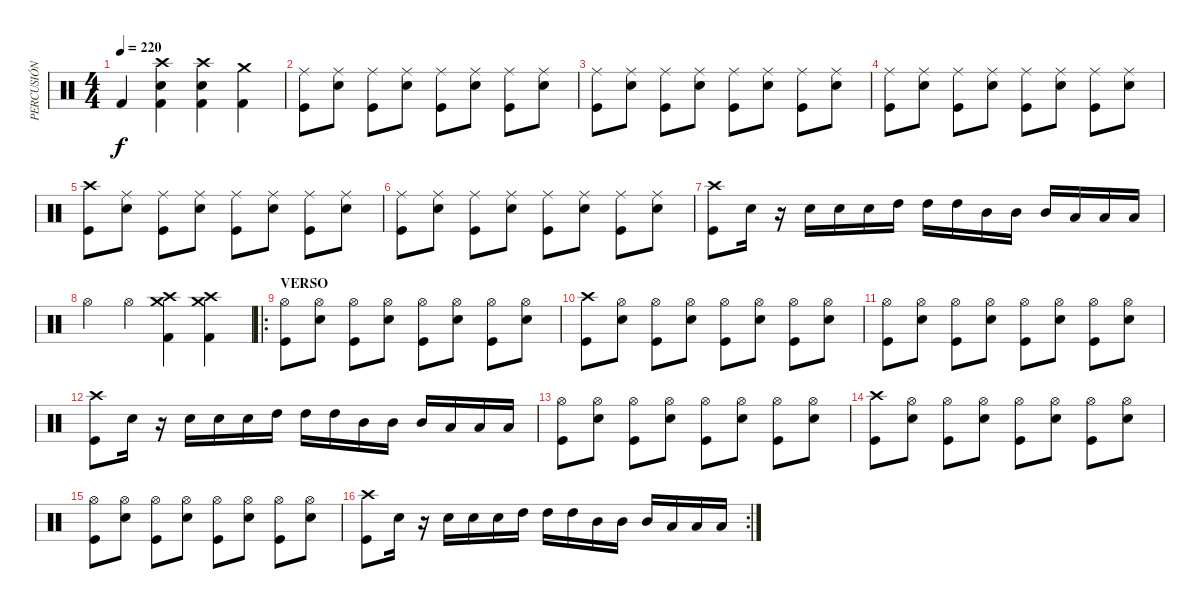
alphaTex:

\track ("PERCUSIÓN" "PERCUSIÓN") {instrument percussion}
\staff {score}
\articulation defaults
\ts (4 4)
\tempo 220
\clef neutral
\ks c "Kick (hit) 2".4{dy f}
("Snare (hit) 2" "Crash high (hit)" "Kick (hit) 2").4 ("Snare (hit) 2" "Crash high (hit)" "Kick (hit) 2").4 ("Crash medium (hit)" "Kick (hit) 2").4 |
("Ride (middle)" "Kick (hit)").8 ("Ride (middle)" "Snare (hit) 2").8 ("Ride (middle)" "Kick (hit)").8 ("Ride (middle)" "Snare (hit) 2").8 ("Ride (middle)" "Kick (hit)").8 ("Ride (middle)" "Snare (hit) 2").8 ("Ride (middle)" "Kick (hit)").8 ("Ride (middle)" "Snare (hit) 2").8 |
("Ride (middle)" "Kick (hit)").8 ("Ride (middle)" "Snare (hit) 2").8 ("Ride (middle)" "Kick (hit)").8 ("Ride (middle)" "Snare (hit) 2").8 ("Ride (middle)" "Kick (hit)").8 ("Ride (middle)" "Snare (hit) 2").8 ("Ride (middle)" "Kick (hit)").8 ("Ride (middle)" "Snare (hit) 2").8 |
("Ride (middle)" "Kick (hit)").8 ("Ride (middle)" "Snare (hit) 2").8 ("Ride (middle)" "Kick (hit)").8 ("Ride (middle)" "Snare (hit) 2").8 ("Ride (middle)" "Kick (hit)").8 ("Ride (middle)" "Snare (hit) 2").8 ("Ride (middle)" "Kick (hit)").8 ("Ride (middle)" "Snare (hit) 2").8 |
("Crash high (hit)" "Kick (hit)").8 ("Ride (middle)" "Snare (hit) 2").8 ("Ride (middle)" "Kick (hit)").8 ("Ride (middle)" "Snare (hit) 2").8 ("Ride (middle)" "Kick (hit)").8 ("Ride (middle)" "Snare (hit) 2").8 ("Ride (middle)" "Kick (hit)").8 ("Ride (middle)" "Snare (hit) 2").8 |
("Ride (middle)" "Kick (hit)").8 ("Ride (middle)" "Snare (hit) 2").8 ("Ride (middle)" "Kick (hit)").8 ("Ride (middle)" "Snare (hit) 2").8 ("Ride (middle)" "Kick (hit)").8 ("Ride (middle)" "Snare (hit) 2").8 ("Ride (middle)" "Kick (hit)").8 ("Ride (middle)" "Snare (hit) 2").8 |
("Crash high (hit)" "Kick (hit)").8 "Snare (hit) 2".16 r.16 "Snare (hit) 2".16 "Snare (hit) 2".16 "Snare (hit) 2".16 "High Tom (hit)".16 "High Tom (hit)".16 "High Tom (hit)".16 "Mid Tom (hit)".16 "Mid Tom (hit)".16 "Mid Tom (hit)".16 "Low Tom (hit)".16 "Low Tom (hit)".16 "Low Tom (hit)".16 |
"Hi-Hat (open)".4 "Hi-Hat (open)".4 ("Crash medium (hit)" "Crash high (hit)" "Kick (hit) 2").4 ("Crash medium (hit)" "Crash high (hit)" "Kick (hit) 2").4 |
\ro
\section ("" "VERSO")
("Hi-Hat (open)" "Kick (hit)").8 ("Hi-Hat (open)" "Snare (hit) 2").8 ("Hi-Hat (open)" "Kick (hit)").8 ("Hi-Hat (open)" "Snare (hit) 2").8 ("Hi-Hat (open)" "Kick (hit)").8 ("Hi-Hat (open)" "Snare (hit) 2").8 ("Hi-Hat (open)" "Kick (hit)").8 ("Hi-Hat (open)" "Snare (hit) 2").8 |
("Crash high (hit)" "Kick (hit)").8 ("Hi-Hat (open)" "Snare (hit) 2").8 ("Hi-Hat (open)" "Kick (hit)").8 ("Hi-Hat (open)" "Snare (hit) 2").8 ("Hi-Hat (open)" "Kick (hit)").8 ("Hi-Hat (open)" "Snare (hit) 2").8 ("Hi-Hat (open)" "Kick (hit)").8 ("Hi-Hat (open)" "Snare (hit) 2").8 |
("Hi-Hat (open)" "Kick (hit)").8 ("Hi-Hat (open)" "Snare (hit) 2").8 ("Hi-Hat (open)" "Kick (hit)").8 ("Hi-Hat (open)" "Snare (hit) 2").8 ("Hi-Hat (open)" "Kick (hit)").8 ("Hi-Hat (open)" "Snare (hit) 2").8 ("Hi-Hat (open)" "Kick (hit)").8 ("Hi-Hat (open)" "Snare (hit) 2").8 |
("Crash high (hit)" "Kick (hit)").8 "Snare (hit) 2".16 r.16 "Snare (hit) 2".16 "Snare (hit) 2".16 "Snare (hit) 2".16 "High Tom (hit)".16 "High Tom (hit)".16 "High Tom (hit)".16 "Mid Tom (hit)".16 "Mid Tom (hit)".16 "Mid Tom (hit)".16 "Low Tom (hit)".16 "Low Tom (hit)".16 "Low Tom (hit)".16 |
("Hi-Hat (open)" "Kick (hit)").8 ("Hi-Hat (open)" "Snare (hit) 2").8 ("Hi-Hat (open)" "Kick (hit)").8 ("Hi-Hat (open)" "Snare (hit) 2").8 ("Hi-Hat (open)" "Kick (hit)").8 ("Hi-Hat (open)" "Snare (hit) 2").8 ("Hi-Hat (open)" "Kick (hit)").8 ("Hi-Hat (open)" "Snare (hit) 2").8 |
("Crash high (hit)" "Kick (hit)").8 ("Hi-Hat (open)" "Snare (hit) 2").8 ("Hi-Hat (open)" "Kick (hit)").8 ("Hi-Hat (open)" "Snare (hit) 2").8 ("Hi-Hat (open)" "Kick (hit)").8 ("Hi-Hat (open)" "Snare (hit) 2").8 ("Hi-Hat (open)" "Kick (hit)").8 ("Hi-Hat (open)" "Snare (hit) 2").8 |
("Hi-Hat (open)" "Kick (hit)").8 ("Hi-Hat (open)" "Snare (hit) 2").8 ("Hi-Hat (open)" "Kick (hit)").8 ("Hi-Hat (open)" "Snare (hit) 2").8 ("Hi-Hat (open)" "Kick (hit)").8 ("Hi-Hat (open)" "Snare (hit) 2").8 ("Hi-Hat (open)" "Kick (hit)").8 ("Hi-Hat (open)" "Snare (hit) 2").8 |
\rc 2
("Crash high (hit)" "Kick (hit)").8 "Snare (hit) 2".16 r.16 "Snare (hit) 2".16 "Snare (hit) 2".16 "Snare (hit) 2".16 "High Tom (hit)".16 "High Tom (hit)".16 "High Tom (hit)".16 "Mid Tom (hit)".16 "Mid Tom (hit)".16 "Mid Tom (hit)".16 "Low Tom (hit)".16 "Low Tom (hit)".16 "Low Tom (hit)".16
